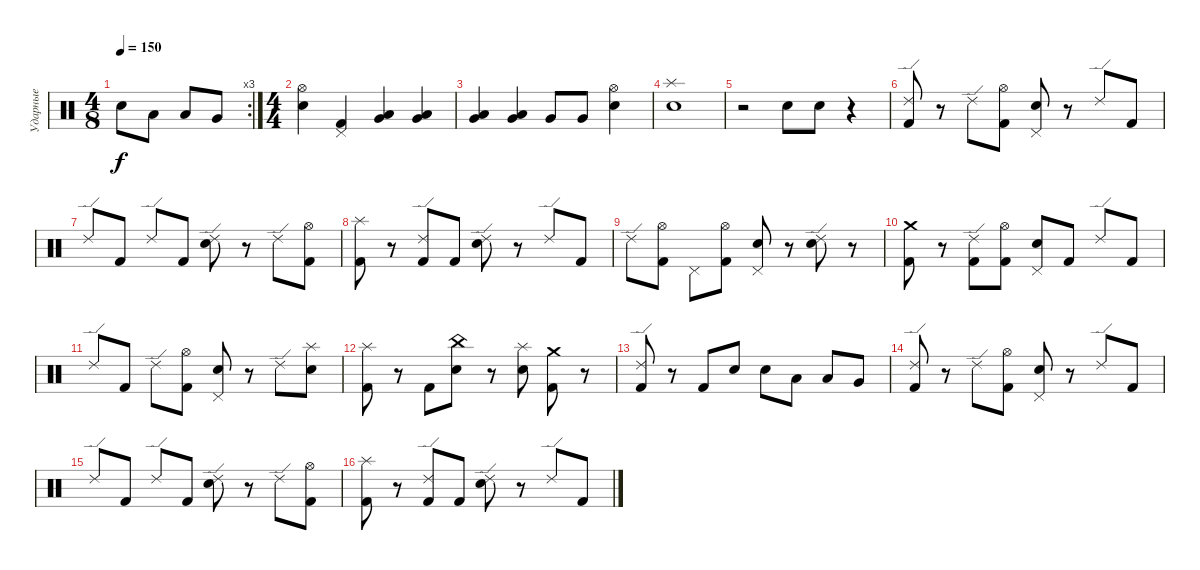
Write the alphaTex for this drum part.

\track ("Ударные" "Ударные") {instrument percussion}
\staff {score}
\articulation defaults
\rc 3
\ts (4 8)
\tempo 150
\clef neutral
\ks c "Electric Snare (hit)".8{dy f} "Low Tom (hit)".8 "Low Tom (hit)".8 "Very Low Tom (hit)".8
|
\ts (4 4)
("Hi-Hat (open)" "Electric Snare (hit)").4 ("Pedal Hi-Hat (hit)" "Kick (hit) 2").4 ("Low Tom (hit)" "Very Low Tom (hit)").4 ("Low Tom (hit)" "Very Low Tom (hit)").4 |
("Low Tom (hit)" "Very Low Tom (hit)").4 ("Low Tom (hit)" "Very Low Tom (hit)").4 "Very Low Tom (hit)".8 "Very Low Tom (hit)".8 ("Hi-Hat (open)" "Electric Snare (hit)").4 |
("Splash (hit)" "Electric Snare (hit)").1 |
r.2 "Electric Snare (hit)".8 "Electric Snare (hit)".8 r.4 |
("Ride (edge) 2" "Kick (hit) 2").8 r.8 "Ride (edge) 2".8 ("Hi-Hat (open)" "Kick (hit) 2").8 ("Pedal Hi-Hat (hit)" "Electric Snare (hit)").8 r.8 "Ride (edge) 2".8 "Kick (hit) 2".8 |
"Ride (edge) 2".8 "Kick (hit) 2".8 "Ride (edge) 2".8 "Kick (hit) 2".8 ("Ride (edge) 2" "Electric Snare (hit)").8 r.8 "Ride (edge) 2".8 ("Hi-Hat (open)" "Kick (hit) 2").8 |
("Splash (hit)" "Kick (hit) 2").8 r.8 ("Ride (edge) 2" "Kick (hit) 2").8 "Kick (hit) 2".8 ("Ride (edge) 2" "Electric Snare (hit)").8 r.8 "Ride (edge) 2".8 "Kick (hit) 2".8 |
"Ride (edge) 2".8 ("Hi-Hat (open)" "Kick (hit) 2").8 "Pedal Hi-Hat (hit)".8 ("Hi-Hat (open)" "Kick (hit) 2").8 ("Pedal Hi-Hat (hit)" "Electric Snare (hit)").8 r.8 ("Ride (edge) 2" "Electric Snare (hit)").8 r.8 |
("Crash medium (hit)" "Kick (hit) 2").8 r.8 ("Ride (edge) 2" "Kick (hit) 2").8 ("Hi-Hat (open)" "Kick (hit) 2").8 ("Pedal Hi-Hat (hit)" "Electric Snare (hit)").8 "Kick (hit) 2".8 "Ride (edge) 2".8 "Kick (hit) 2".8 |
"Ride (edge) 2".8 "Kick (hit) 2".8 "Ride (edge) 2".8 ("Hi-Hat (open)" "Kick (hit) 2").8 ("Pedal Hi-Hat (hit)" "Electric Snare (hit)").8 r.8 "Ride (edge) 2".8 ("Splash (hit)" "Electric Snare (hit)").8 |
("Splash (hit)" "Kick (hit) 2").8 r.8 "Kick (hit) 2".8 ("China (hit)" "Electric Snare (hit)").8 r.8 ("Splash (hit)" "Electric Snare (hit)").8 ("Crash medium (hit)" "Kick (hit) 2").8 r.8 |
("Ride (edge) 2" "Kick (hit) 2").8 r.8 "Kick (hit) 2".8 "Electric Snare (hit)".8 "Electric Snare (hit)".8 "Low Tom (hit)".8 "Low Tom (hit)".8 "Very Low Tom (hit)".8 |
("Ride (edge) 2" "Kick (hit) 2").8 r.8 "Ride (edge) 2".8 ("Hi-Hat (open)" "Kick (hit) 2").8 ("Pedal Hi-Hat (hit)" "Electric Snare (hit)").8 r.8 "Ride (edge) 2".8 "Kick (hit) 2".8 |
"Ride (edge) 2".8 "Kick (hit) 2".8 "Ride (edge) 2".8 "Kick (hit) 2".8 ("Ride (edge) 2" "Electric Snare (hit)").8 r.8 "Ride (edge) 2".8 ("Hi-Hat (open)" "Kick (hit) 2").8 |
("Splash (hit)" "Kick (hit) 2").8 r.8 ("Ride (edge) 2" "Kick (hit) 2").8 "Kick (hit) 2".8 ("Ride (edge) 2" "Electric Snare (hit)").8 r.8 "Ride (edge) 2".8 "Kick (hit) 2".8
